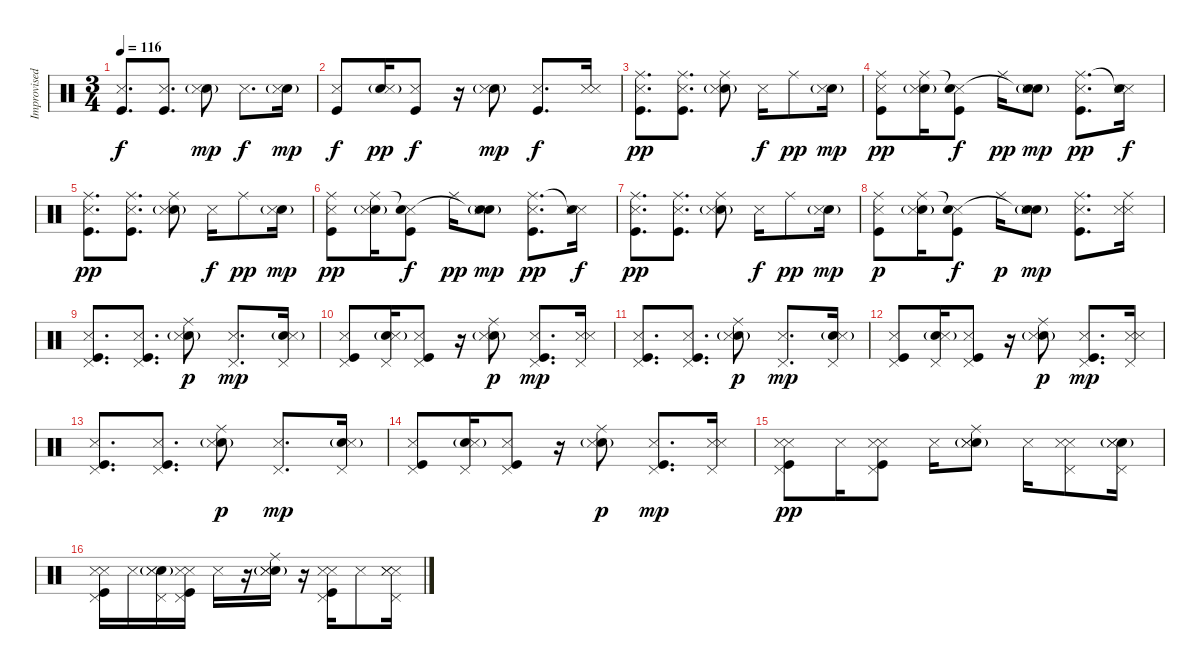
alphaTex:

\track ("Improvised Drums" "Improvised") {instrument percussion}
\staff {score}
\articulation defaults
\ts (3 4)
\tempo 116
\clef neutral
\ks c
("Metronome (hit)" "Kick (hit)").8{d dy f} ("Metronome (hit)" "Kick (hit)").8{d} ("Electric Snare (hit)"{g} "Metronome (hit)").8{dy mp} "Metronome (hit)".8{d dy f} ("Electric Snare (hit)"{g} "Metronome (hit)").16{dy mp} |
("Metronome (hit)" "Kick (hit)").8{dy f} ("Electric Snare (hit)"{g} "Metronome (hit)").16{dy pp} ("Kick (hit)" "Metronome (hit)").8{dy f} r.16 ("Electric Snare (hit)"{g} "Metronome (hit)").8{dy mp} ("Kick (hit)" "Metronome (hit)").8{d dy f} ("Metronome (hit)" "Metronome (hit)").16 |
("Metronome (hit)" "Kick (hit)" "Ride (middle)").8{d dy pp} ("Metronome (hit)" "Kick (hit)" "Ride (middle)").8{d} ("Electric Snare (hit)"{g} "Metronome (hit)" "Ride (middle)").8 "Metronome (hit)".16{dy f} "Ride (middle)".8{dy pp} ("Electric Snare (hit)"{g} "Metronome (hit)").16{dy mp} |
("Metronome (hit)" "Kick (hit)" "Ride (middle)").8{dy pp} ("Electric Snare (hit)"{g} "Metronome (hit)" "Ride (middle)").16 ("Kick (hit)" "Metronome (hit)" "Snare (hit)"{t}).8{dy f} "Ride (middle)".16{dy pp} ("Electric Snare (hit)"{g} "Metronome (hit)" "Snare (hit)"{t}).8{dy mp} ("Kick (hit)" "Metronome (hit)" "Ride (middle)").8{d dy pp} ("Metronome (hit)" "Metronome (hit)" "Snare (hit)"{t}).16{dy f} |
("Metronome (hit)" "Kick (hit)" "Ride (middle)").8{d dy pp} ("Metronome (hit)" "Kick (hit)" "Ride (middle)").8{d} ("Electric Snare (hit)"{g} "Metronome (hit)" "Ride (middle)").8 "Metronome (hit)".16{dy f} "Ride (middle)".8{dy pp} ("Electric Snare (hit)"{g} "Metronome (hit)").16{dy mp} |
("Metronome (hit)" "Kick (hit)" "Ride (middle)").8{dy pp} ("Electric Snare (hit)"{g} "Metronome (hit)" "Ride (middle)").16 ("Kick (hit)" "Metronome (hit)" "Snare (hit)"{t}).8{dy f} "Ride (middle)".16{dy pp} ("Electric Snare (hit)"{g} "Metronome (hit)" "Snare (hit)"{t}).8{dy mp} ("Kick (hit)" "Metronome (hit)" "Ride (middle)").8{d dy pp} ("Metronome (hit)" "Metronome (hit)" "Snare (hit)"{t}).16{dy f} |
("Metronome (hit)" "Kick (hit)" "Ride (middle)").8{d dy pp} ("Metronome (hit)" "Kick (hit)" "Ride (middle)").8{d} ("Electric Snare (hit)"{g} "Metronome (hit)" "Ride (middle)").8 "Metronome (hit)".16{dy f} "Ride (middle)".8{dy pp} ("Electric Snare (hit)"{g} "Metronome (hit)").16{dy mp} |
("Metronome (hit)" "Kick (hit)" "Ride (middle)").8{dy p} ("Electric Snare (hit)"{g} "Metronome (hit)" "Ride (middle)").16 ("Kick (hit)" "Metronome (hit)" "Snare (hit)"{t}).8{dy f} "Ride (middle)".16{dy p} ("Electric Snare (hit)"{g} "Metronome (hit)" "Snare (hit)"{t}).8{dy mp} ("Kick (hit)" "Metronome (hit)" "Ride (middle)").8{d} ("Metronome (hit)" "Metronome (hit)" "Ride (middle)").16 |
("Metronome (hit)" "Kick (hit)" "Pedal Hi-Hat (hit)").8{d} ("Metronome (hit)" "Kick (hit)" "Pedal Hi-Hat (hit)").8{d} ("Electric Snare (hit)"{g} "Metronome (hit)" "Ride (middle)").8{dy p} ("Metronome (hit)" "Pedal Hi-Hat (hit)").8{d dy mp} ("Electric Snare (hit)"{g} "Metronome (hit)" "Pedal Hi-Hat (hit)").16 |
("Metronome (hit)" "Kick (hit)" "Pedal Hi-Hat (hit)").8 ("Electric Snare (hit)"{g} "Metronome (hit)" "Pedal Hi-Hat (hit)").16 ("Kick (hit)" "Metronome (hit)" "Pedal Hi-Hat (hit)").8 r.16 ("Electric Snare (hit)"{g} "Metronome (hit)" "Ride (middle)").8{dy p} ("Kick (hit)" "Metronome (hit)" "Pedal Hi-Hat (hit)").8{d dy mp} ("Metronome (hit)" "Metronome (hit)" "Pedal Hi-Hat (hit)").16 |
("Metronome (hit)" "Kick (hit)" "Pedal Hi-Hat (hit)").8{d} ("Metronome (hit)" "Kick (hit)" "Pedal Hi-Hat (hit)").8{d} ("Electric Snare (hit)"{g} "Metronome (hit)" "Ride (middle)").8{dy p} ("Metronome (hit)" "Pedal Hi-Hat (hit)").8{d dy mp} ("Electric Snare (hit)"{g} "Metronome (hit)" "Pedal Hi-Hat (hit)").16 |
("Metronome (hit)" "Kick (hit)" "Pedal Hi-Hat (hit)").8 ("Electric Snare (hit)"{g} "Metronome (hit)" "Pedal Hi-Hat (hit)").16 ("Kick (hit)" "Metronome (hit)" "Pedal Hi-Hat (hit)").8 r.16 ("Electric Snare (hit)"{g} "Metronome (hit)" "Ride (middle)").8{dy p} ("Kick (hit)" "Metronome (hit)" "Pedal Hi-Hat (hit)").8{d dy mp} ("Metronome (hit)" "Metronome (hit)" "Pedal Hi-Hat (hit)").16 |
("Metronome (hit)" "Kick (hit)" "Pedal Hi-Hat (hit)").8{d} ("Metronome (hit)" "Kick (hit)" "Pedal Hi-Hat (hit)").8{d} ("Electric Snare (hit)"{g} "Metronome (hit)" "Ride (middle)").8{dy p} ("Metronome (hit)" "Pedal Hi-Hat (hit)").8{d dy mp} ("Electric Snare (hit)"{g} "Metronome (hit)" "Pedal Hi-Hat (hit)").16 |
("Metronome (hit)" "Kick (hit)" "Pedal Hi-Hat (hit)").8 ("Electric Snare (hit)"{g} "Metronome (hit)" "Pedal Hi-Hat (hit)").16 ("Kick (hit)" "Metronome (hit)" "Pedal Hi-Hat (hit)").8 r.16 ("Electric Snare (hit)"{g} "Metronome (hit)" "Ride (middle)").8{dy p} ("Kick (hit)" "Metronome (hit)" "Pedal Hi-Hat (hit)").8{d dy mp} ("Metronome (hit)" "Metronome (hit)" "Pedal Hi-Hat (hit)").16 |
("Metronome (hit)" "Kick (hit)" "Pedal Hi-Hat (hit)" "Snare (side stick) 3").8{dy pp} "Snare (side stick) 3".16 ("Metronome (hit)" "Kick (hit)" "Pedal Hi-Hat (hit)" "Snare (side stick) 3").8 "Snare (side stick) 3".16 ("Electric Snare (hit)"{g} "Metronome (hit)" "Ride (middle)" "Snare (side stick) 3").8 "Snare (side stick) 3".16 ("Metronome (hit)" "Pedal Hi-Hat (hit)" "Snare (side stick) 3").8 ("Electric Snare (hit)"{g} "Metronome (hit)" "Pedal Hi-Hat (hit)" "Snare (side stick) 3").16 |
("Metronome (hit)" "Kick (hit)" "Pedal Hi-Hat (hit)" "Snare (side stick) 3").16 "Snare (side stick) 3".16 ("Electric Snare (hit)"{g} "Metronome (hit)" "Pedal Hi-Hat (hit)" "Snare (side stick) 3").16 ("Kick (hit)" "Metronome (hit)" "Pedal Hi-Hat (hit)" "Snare (side stick) 3").16 "Snare (side stick) 3".16 r.16 ("Electric Snare (hit)"{g} "Metronome (hit)" "Ride (middle)" "Snare (side stick) 3").16 r.16 ("Kick (hit)" "Metronome (hit)" "Pedal Hi-Hat (hit)" "Snare (side stick) 3").16 "Snare (side stick) 3".8 ("Metronome (hit)" "Metronome (hit)" "Pedal Hi-Hat (hit)" "Snare (side stick) 3").16
